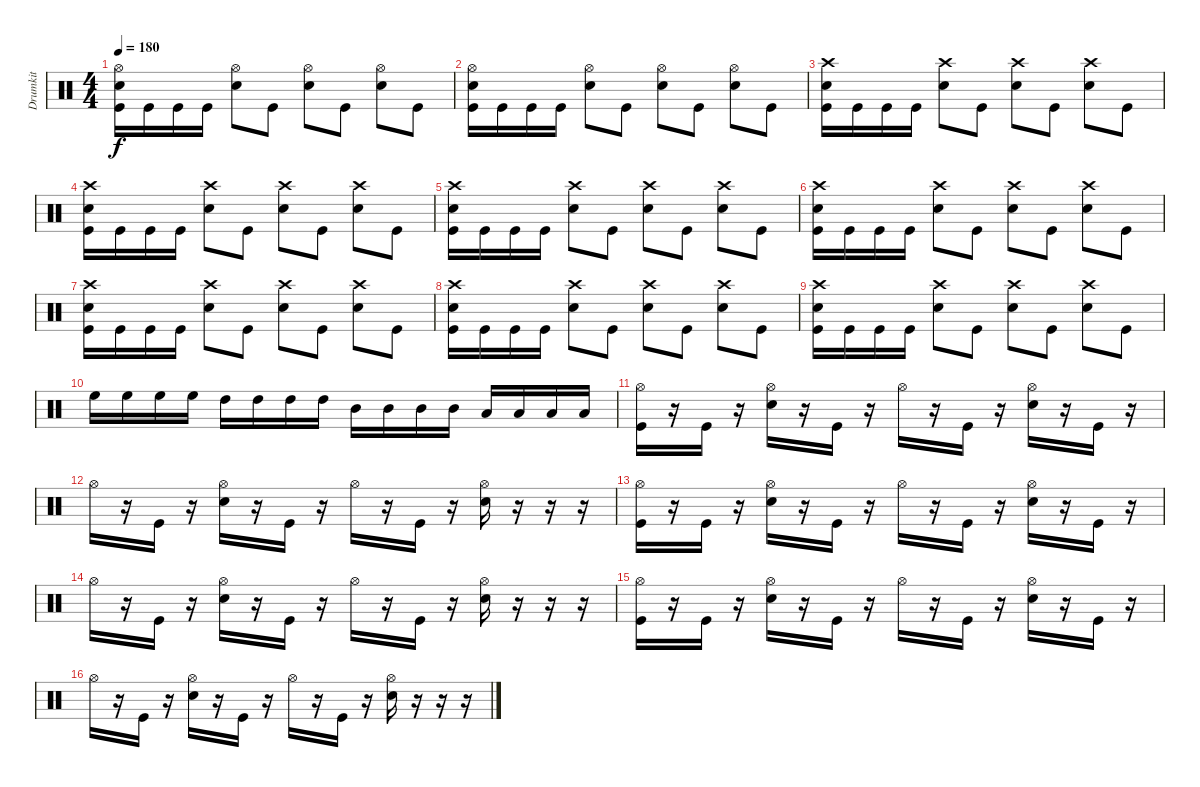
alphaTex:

\track ("Drumkit" "Drumkit") {instrument percussion}
\staff {score}
\articulation defaults
\ts (4 4)
\tempo 180
\clef neutral
\ks c
("Hi-Hat (open)" "Snare (hit) 2" "Kick (hit)").16{dy f} "Kick (hit)".16 "Kick (hit)".16 "Kick (hit)".16 ("Hi-Hat (open)" "Snare (hit) 2").8 "Kick (hit)".8 ("Hi-Hat (open)" "Snare (hit) 2").8 "Kick (hit)".8 ("Hi-Hat (open)" "Snare (hit) 2").8 "Kick (hit)".8 |
("Hi-Hat (open)" "Snare (hit) 2" "Kick (hit)").16 "Kick (hit)".16 "Kick (hit)".16 "Kick (hit)".16 ("Hi-Hat (open)" "Snare (hit) 2").8 "Kick (hit)".8 ("Hi-Hat (open)" "Snare (hit) 2").8 "Kick (hit)".8 ("Hi-Hat (open)" "Snare (hit) 2").8 "Kick (hit)".8 |
("Crash high (hit)" "Snare (hit) 2" "Kick (hit)").16 "Kick (hit)".16 "Kick (hit)".16 "Kick (hit)".16 ("Crash high (hit)" "Snare (hit) 2").8 "Kick (hit)".8 ("Crash high (hit)" "Snare (hit) 2").8 "Kick (hit)".8 ("Crash high (hit)" "Snare (hit) 2").8 "Kick (hit)".8 |
("Crash high (hit)" "Snare (hit) 2" "Kick (hit)").16 "Kick (hit)".16 "Kick (hit)".16 "Kick (hit)".16 ("Crash high (hit)" "Snare (hit) 2").8 "Kick (hit)".8 ("Crash high (hit)" "Snare (hit) 2").8 "Kick (hit)".8 ("Crash high (hit)" "Snare (hit) 2").8 "Kick (hit)".8 |
("Crash high (hit)" "Snare (hit) 2" "Kick (hit)").16 "Kick (hit)".16 "Kick (hit)".16 "Kick (hit)".16 ("Crash high (hit)" "Snare (hit) 2").8 "Kick (hit)".8 ("Crash high (hit)" "Snare (hit) 2").8 "Kick (hit)".8 ("Crash high (hit)" "Snare (hit) 2").8 "Kick (hit)".8 |
("Crash high (hit)" "Snare (hit) 2" "Kick (hit)").16 "Kick (hit)".16 "Kick (hit)".16 "Kick (hit)".16 ("Crash high (hit)" "Snare (hit) 2").8 "Kick (hit)".8 ("Crash high (hit)" "Snare (hit) 2").8 "Kick (hit)".8 ("Crash high (hit)" "Snare (hit) 2").8 "Kick (hit)".8 |
("Crash high (hit)" "Snare (hit) 2" "Kick (hit)").16 "Kick (hit)".16 "Kick (hit)".16 "Kick (hit)".16 ("Crash high (hit)" "Snare (hit) 2").8 "Kick (hit)".8 ("Crash high (hit)" "Snare (hit) 2").8 "Kick (hit)".8 ("Crash high (hit)" "Snare (hit) 2").8 "Kick (hit)".8 |
("Crash high (hit)" "Snare (hit) 2" "Kick (hit)").16 "Kick (hit)".16 "Kick (hit)".16 "Kick (hit)".16 ("Crash high (hit)" "Snare (hit) 2").8 "Kick (hit)".8 ("Crash high (hit)" "Snare (hit) 2").8 "Kick (hit)".8 ("Crash high (hit)" "Snare (hit) 2").8 "Kick (hit)".8 |
("Crash high (hit)" "Snare (hit) 2" "Kick (hit)").16 "Kick (hit)".16 "Kick (hit)".16 "Kick (hit)".16 ("Crash high (hit)" "Snare (hit) 2").8 "Kick (hit)".8 ("Crash high (hit)" "Snare (hit) 2").8 "Kick (hit)".8 ("Crash high (hit)" "Snare (hit) 2").8 "Kick (hit)".8 |
"High Floor Tom (hit)".16 "High Floor Tom (hit)".16 "High Floor Tom (hit)".16 "High Floor Tom (hit)".16 "High Tom (hit)".16 "High Tom (hit)".16 "High Tom (hit)".16 "High Tom (hit)".16 "Mid Tom (hit)".16 "Mid Tom (hit)".16 "Mid Tom (hit)".16 "Mid Tom (hit)".16 "Low Tom (hit)".16 "Low Tom (hit)".16 "Low Tom (hit)".16 "Low Tom (hit)".16 |
("Hi-Hat (open)" "Kick (hit)").16 r.16 "Kick (hit)".16 r.16 ("Hi-Hat (open)" "Snare (hit) 2").16 r.16 "Kick (hit)".16 r.16 "Hi-Hat (open)".16 r.16 "Kick (hit)".16 r.16 ("Hi-Hat (open)" "Snare (hit) 2").16 r.16 "Kick (hit)".16 r.16 |
"Hi-Hat (open)".16 r.16 "Kick (hit)".16 r.16 ("Hi-Hat (open)" "Snare (hit) 2").16 r.16 "Kick (hit)".16 r.16 "Hi-Hat (open)".16 r.16 "Kick (hit)".16 r.16 ("Hi-Hat (open)" "Snare (hit) 2").16 r.16 r.16 r.16 |
("Hi-Hat (open)" "Kick (hit)").16 r.16 "Kick (hit)".16 r.16 ("Hi-Hat (open)" "Snare (hit) 2").16 r.16 "Kick (hit)".16 r.16 "Hi-Hat (open)".16 r.16 "Kick (hit)".16 r.16 ("Hi-Hat (open)" "Snare (hit) 2").16 r.16 "Kick (hit)".16 r.16 |
"Hi-Hat (open)".16 r.16 "Kick (hit)".16 r.16 ("Hi-Hat (open)" "Snare (hit) 2").16 r.16 "Kick (hit)".16 r.16 "Hi-Hat (open)".16 r.16 "Kick (hit)".16 r.16 ("Hi-Hat (open)" "Snare (hit) 2").16 r.16 r.16 r.16 |
("Hi-Hat (open)" "Kick (hit)").16 r.16 "Kick (hit)".16 r.16 ("Hi-Hat (open)" "Snare (hit) 2").16 r.16 "Kick (hit)".16 r.16 "Hi-Hat (open)".16 r.16 "Kick (hit)".16 r.16 ("Hi-Hat (open)" "Snare (hit) 2").16 r.16 "Kick (hit)".16 r.16 |
"Hi-Hat (open)".16 r.16 "Kick (hit)".16 r.16 ("Hi-Hat (open)" "Snare (hit) 2").16 r.16 "Kick (hit)".16 r.16 "Hi-Hat (open)".16 r.16 "Kick (hit)".16 r.16 ("Hi-Hat (open)" "Snare (hit) 2").16 r.16 r.16 r.16
